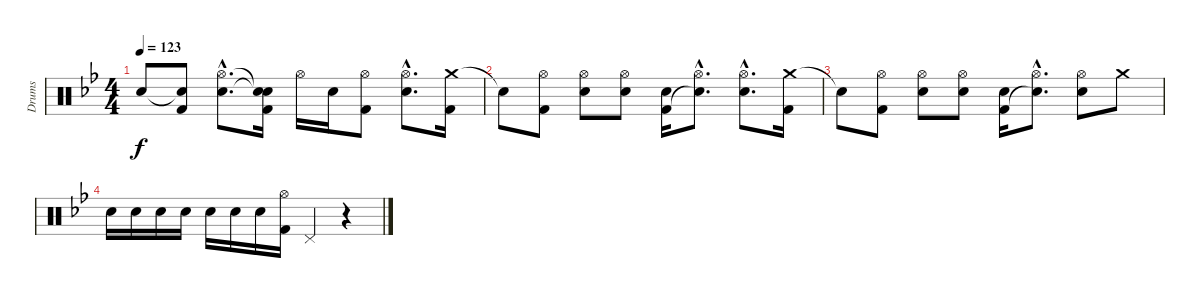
\track ("Drums" "Drums") {instrument percussion}
\staff {score}
\articulation defaults
\ts (4 4)
\tempo 123
\clef neutral
\ks gminor "Snare (hit)"{t}.8{dy f}
("Snare (hit)"{t} "Kick (hit) 2").8 ("Hi-Hat (open)"{hac} "Electric Snare (hit)"{hac}).8{d} ("Snare (hit)"{t} "Snare (hit)"{t} "Kick (hit) 2").16 "Hi-Hat (open)".16 "Electric Snare (hit)".16 ("Hi-Hat (open)" "Kick (hit) 2").8 ("Hi-Hat (open)"{hac} "Electric Snare (hit)"{hac}).8{d} ("Crash medium (hit)" "Kick (hit) 2").16 |
"Snare (hit)"{t}.8 ("Hi-Hat (open)" "Kick (hit) 2").8 ("Hi-Hat (open)" "Electric Snare (hit)").8 ("Hi-Hat (open)" "Electric Snare (hit)").8 ("Electric Snare (hit)" "Kick (hit) 2").16 ("Hi-Hat (open)"{hac} "Snare (hit)"{hac t}).8{d} ("Hi-Hat (open)"{hac} "Electric Snare (hit)"{hac}).8{d} ("Crash medium (hit)" "Kick (hit) 2").16 |
"Snare (hit)"{t}.8 ("Hi-Hat (open)" "Kick (hit) 2").8 ("Hi-Hat (open)" "Electric Snare (hit)").8 ("Hi-Hat (open)" "Electric Snare (hit)").8 ("Electric Snare (hit)" "Kick (hit) 2").16 ("Hi-Hat (open)"{hac} "Snare (hit)"{hac t}).8{d} ("Hi-Hat (open)" "Electric Snare (hit)").8 "Crash medium (hit)".8 |
"Electric Snare (hit)".16 "Electric Snare (hit)".16 "Electric Snare (hit)".16 "Electric Snare (hit)".16 "Electric Snare (hit)".16 "Electric Snare (hit)".16 "Electric Snare (hit)".16 ("Hi-Hat (open)" "Kick (hit) 2").16 "Pedal Hi-Hat (hit)".4 r.4
